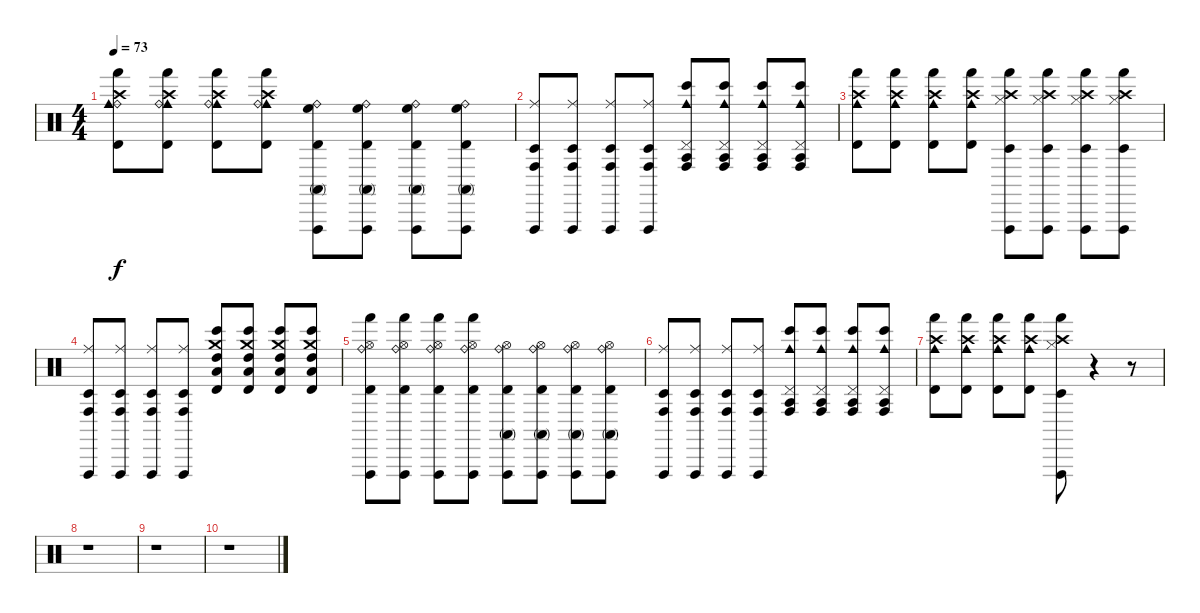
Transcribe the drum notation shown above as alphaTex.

\track "" {instrument percussion}
\staff {score}
\articulation defaults
\ts (4 4)
\tempo 73
\clef neutral
\ks c
("Ride (bell)" "Timbale high (hit)" "Hand (hit)" "Cowbell medium (hit)" "Crash high (hit)").8{dy f} ("Hand (hit)" "Timbale high (hit)" "Cowbell medium (hit)" "Ride (bell)" "Crash high (hit)").8 ("Timbale high (hit)" "Hand (hit)" "Cowbell medium (hit)" "Ride (bell)" "Crash high (hit)").8 ("Hand (hit)" "Timbale high (hit)" "Cowbell medium (hit)" "Ride (bell)" "Crash high (hit)").8 ("Ride (bell)" "Vibraslap (hit)" "Conga high (mute)" "Timbale high (hit)" "High Floor Tom (hit)").8 ("Vibraslap (hit)" "Conga high (mute)" "Timbale high (hit)" "Ride (bell)" "High Floor Tom (hit)").8 ("Ride (bell)" "Vibraslap (hit)" "Conga high (mute)" "Timbale high (hit)" "High Floor Tom (hit)").8 ("Vibraslap (hit)" "Conga high (mute)" "Timbale high (hit)" "Ride (bell)" "High Floor Tom (hit)").8 |
("Timbale low (hit)" "Conga high (hit)" "Vibraslap (hit)" "Ride (middle)").8 ("Vibraslap (hit)" "Conga high (hit)" "Timbale low (hit)" "Ride (middle)").8 ("Vibraslap (hit)" "Conga high (hit)" "Timbale low (hit)" "Ride (middle)").8 ("Ride (middle)" "Vibraslap (hit)" "Conga high (hit)" "Timbale low (hit)").8 ("Cowbell medium (hit)" "Bongo High (hit)" "Conga high (hit)" "Agogo tow (hit)" "Pedal Hi-Hat (hit)").8 ("Pedal Hi-Hat (hit)" "Cowbell medium (hit)" "Bongo High (hit)" "Conga high (hit)" "Agogo tow (hit)").8 ("Agogo tow (hit)" "Conga high (hit)" "Bongo High (hit)" "Cowbell medium (hit)" "Pedal Hi-Hat (hit)").8 ("Pedal Hi-Hat (hit)" "Cowbell medium (hit)" "Bongo High (hit)" "Conga high (hit)" "Agogo tow (hit)").8 |
("Timbale high (hit)" "Hand (hit)" "Cowbell medium (hit)" "Crash high (hit)").8 ("Timbale high (hit)" "Hand (hit)" "Cowbell medium (hit)" "Crash high (hit)").8 ("Hand (hit)" "Timbale high (hit)" "Cowbell medium (hit)" "Crash high (hit)").8 ("Timbale high (hit)" "Hand (hit)" "Cowbell medium (hit)" "Crash high (hit)").8 ("Vibraslap (hit)" "Timbale low (hit)" "Hand (hit)" "Crash high (hit)" "Hi-Hat (closed)").8 ("Vibraslap (hit)" "Hand (hit)" "Timbale low (hit)" "Hi-Hat (closed)" "Crash high (hit)").8 ("Vibraslap (hit)" "Hand (hit)" "Timbale low (hit)" "Crash high (hit)" "Hi-Hat (closed)").8 ("Vibraslap (hit)" "Hand (hit)" "Timbale low (hit)" "Hi-Hat (closed)" "Crash high (hit)").8 |
("Timbale low (hit)" "Conga high (hit)" "Vibraslap (hit)" "Ride (middle)").8 ("Vibraslap (hit)" "Conga high (hit)" "Timbale low (hit)" "Ride (middle)").8 ("Conga high (hit)" "Timbale low (hit)" "Vibraslap (hit)" "Ride (middle)").8 ("Vibraslap (hit)" "Conga high (hit)" "Timbale low (hit)" "Ride (middle)").8 ("Timbale high (hit)" "Bongo High (hit)" "Crash medium (hit)" "Low Floor Tom (hit)" "High Tom (hit)").8 ("Crash medium (hit)" "Bongo High (hit)" "Timbale high (hit)" "High Tom (hit)" "Low Floor Tom (hit)").8 ("Crash medium (hit)" "Bongo High (hit)" "Timbale high (hit)" "High Tom (hit)" "Low Floor Tom (hit)").8 ("Crash medium (hit)" "Bongo High (hit)" "Timbale high (hit)" "High Tom (hit)" "Low Floor Tom (hit)").8 |
("Timbale high (hit)" "Hand (hit)" "Vibraslap (hit)" "Ride (bell)" "Hi-Hat (open)").8 ("Ride (bell)" "Hand (hit)" "Timbale high (hit)" "Vibraslap (hit)" "Hi-Hat (open)").8 ("Vibraslap (hit)" "Hand (hit)" "Timbale high (hit)" "Ride (bell)" "Hi-Hat (open)").8 ("Ride (bell)" "Vibraslap (hit)" "Hand (hit)" "Timbale high (hit)" "Hi-Hat (open)").8 ("Vibraslap (hit)" "Timbale high (hit)" "Conga high (mute)" "Ride (bell)" "Hi-Hat (open)").8 ("Ride (bell)" "Vibraslap (hit)" "Conga high (mute)" "Timbale high (hit)" "Hi-Hat (open)").8 ("Vibraslap (hit)" "Timbale high (hit)" "Conga high (mute)" "Ride (bell)" "Hi-Hat (open)").8 ("Ride (bell)" "Vibraslap (hit)" "Conga high (mute)" "Timbale high (hit)" "Hi-Hat (open)").8 |
("Timbale low (hit)" "Conga high (hit)" "Vibraslap (hit)" "Ride (middle)").8 ("Vibraslap (hit)" "Conga high (hit)" "Timbale low (hit)" "Ride (middle)").8 ("Vibraslap (hit)" "Conga high (hit)" "Timbale low (hit)" "Ride (middle)").8 ("Ride (middle)" "Vibraslap (hit)" "Conga high (hit)" "Timbale low (hit)").8 ("Cowbell medium (hit)" "Bongo High (hit)" "Conga high (hit)" "Agogo tow (hit)" "Pedal Hi-Hat (hit)").8 ("Pedal Hi-Hat (hit)" "Cowbell medium (hit)" "Bongo High (hit)" "Conga high (hit)" "Agogo tow (hit)").8 ("Agogo tow (hit)" "Conga high (hit)" "Bongo High (hit)" "Cowbell medium (hit)" "Pedal Hi-Hat (hit)").8 ("Pedal Hi-Hat (hit)" "Cowbell medium (hit)" "Bongo High (hit)" "Conga high (hit)" "Agogo tow (hit)").8 |
("Timbale high (hit)" "Hand (hit)" "Cowbell medium (hit)" "Crash high (hit)").8 ("Timbale high (hit)" "Hand (hit)" "Cowbell medium (hit)" "Crash high (hit)").8 ("Hand (hit)" "Timbale high (hit)" "Cowbell medium (hit)" "Crash high (hit)").8 ("Timbale high (hit)" "Hand (hit)" "Cowbell medium (hit)" "Crash high (hit)").8 ("Vibraslap (hit)" "Timbale low (hit)" "Hand (hit)" "Crash high (hit)" "Hi-Hat (closed)").8 r.4 r.8 |
r.1 |
r.1 |
r.1
